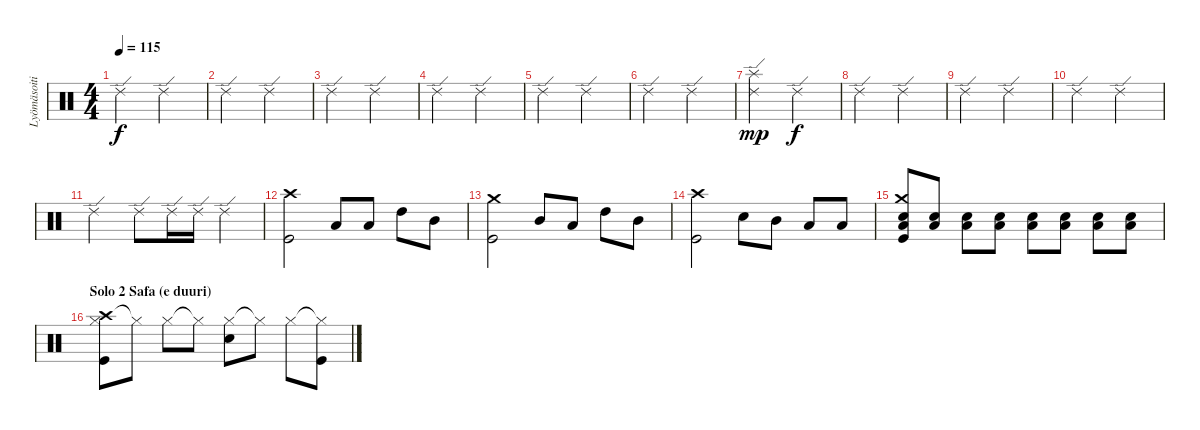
\track ("Lyömäsoitin" "Lyömäsoiti") {instrument percussion}
\staff {score}
\articulation defaults
\ts (4 4)
\tempo 115
\clef neutral
\ks c "Ride (edge) 2".2{dy f} "Ride (edge) 2".2
|
"Ride (edge) 2".2 "Ride (edge) 2".2 |
"Ride (edge) 2".2 "Ride (edge) 2".2 |
"Ride (edge) 2".2 "Ride (edge) 2".2 |
"Ride (edge) 2".2 "Ride (edge) 2".2 |
"Ride (edge) 2".2 "Ride (edge) 2".2 |
("Splash (hit)" "Ride (edge) 2").2{dy mp} "Ride (edge) 2".2{dy f} |
"Ride (edge) 2".2 "Ride (edge) 2".2 |
"Ride (edge) 2".2 "Ride (edge) 2".2 |
"Ride (edge) 2".2 "Ride (edge) 2".2 |
"Ride (edge) 2".2 "Ride (edge) 2".8 "Ride (edge) 2".16 "Ride (edge) 2".16 "Ride (edge) 2".4 |
("Crash high (hit)" "Kick (hit)").2 "Low Tom (hit)".8 "Low Tom (hit)".8 "High Tom (hit)".8 "Mid Tom (hit)".8 |
("Crash medium (hit)" "Kick (hit)").2 "Mid Tom (hit)".8 "Low Tom (hit)".8 "High Tom (hit)".8 "Mid Tom (hit)".8 |
("Crash high (hit)" "Kick (hit)").2 "Snare (hit) 2".8 "Mid Tom (hit)".8 "Low Tom (hit)".8 "Low Tom (hit)".8 |
("Crash medium (hit)" "Low Tom (hit)" "Snare (hit) 2" "Kick (hit)").8 ("Low Tom (hit)" "Snare (hit) 2").8 ("Low Tom (hit)" "Snare (hit) 2").8 ("Low Tom (hit)" "Snare (hit) 2").8 ("Low Tom (hit)" "Snare (hit) 2").8 ("Low Tom (hit)" "Snare (hit) 2").8 ("Low Tom (hit)" "Snare (hit) 2").8 ("Low Tom (hit)" "Snare (hit) 2").8 |
\section ("" "Solo 2 Safa (e duuri)")
("Crash high (hit)" "Hi-Hat (closed)" "Kick (hit)").8 "Hi-Hat (closed)"{t}.8 "Hi-Hat (closed)".8 "Hi-Hat (closed)"{t}.8 ("Hi-Hat (closed)" "Snare (hit) 2").8 "Hi-Hat (closed)"{t}.8 "Hi-Hat (closed)".8 ("Hi-Hat (closed)"{t} "Kick (hit)").8
